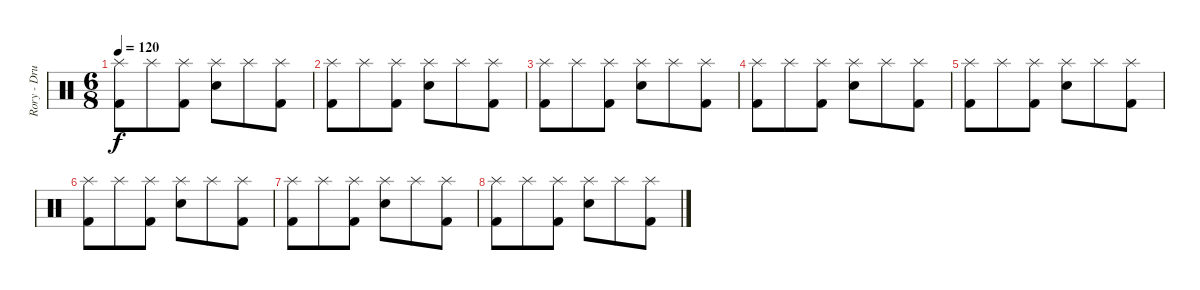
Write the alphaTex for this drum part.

\track ("Rory - Drums" "Rory - Dru") {instrument percussion}
\staff {score}
\articulation defaults
\ts (6 8)
\tempo 120
\clef neutral
\ks c
("Kick (hit) 2" "Splash (hit)").8{dy f} "Splash (hit)".8 ("Kick (hit) 2" "Splash (hit)").8 ("Electric Snare (hit)" "Splash (hit)").8 "Splash (hit)".8 ("Kick (hit) 2" "Splash (hit)").8 |
("Kick (hit) 2" "Splash (hit)").8 "Splash (hit)".8 ("Kick (hit) 2" "Splash (hit)").8 ("Electric Snare (hit)" "Splash (hit)").8 "Splash (hit)".8 ("Kick (hit) 2" "Splash (hit)").8 |
("Kick (hit) 2" "Splash (hit)").8 "Splash (hit)".8 ("Kick (hit) 2" "Splash (hit)").8 ("Electric Snare (hit)" "Splash (hit)").8 "Splash (hit)".8 ("Kick (hit) 2" "Splash (hit)").8 |
("Kick (hit) 2" "Splash (hit)").8 "Splash (hit)".8 ("Kick (hit) 2" "Splash (hit)").8 ("Electric Snare (hit)" "Splash (hit)").8 "Splash (hit)".8 ("Kick (hit) 2" "Splash (hit)").8 |
("Kick (hit) 2" "Splash (hit)").8 "Splash (hit)".8 ("Kick (hit) 2" "Splash (hit)").8 ("Electric Snare (hit)" "Splash (hit)").8 "Splash (hit)".8 ("Kick (hit) 2" "Splash (hit)").8 |
("Kick (hit) 2" "Splash (hit)").8 "Splash (hit)".8 ("Kick (hit) 2" "Splash (hit)").8 ("Electric Snare (hit)" "Splash (hit)").8 "Splash (hit)".8 ("Kick (hit) 2" "Splash (hit)").8 |
("Kick (hit) 2" "Splash (hit)").8 "Splash (hit)".8 ("Kick (hit) 2" "Splash (hit)").8 ("Electric Snare (hit)" "Splash (hit)").8 "Splash (hit)".8 ("Kick (hit) 2" "Splash (hit)").8 |
("Kick (hit) 2" "Splash (hit)").8 "Splash (hit)".8 ("Kick (hit) 2" "Splash (hit)").8 ("Electric Snare (hit)" "Splash (hit)").8 "Splash (hit)".8 ("Kick (hit) 2" "Splash (hit)").8
